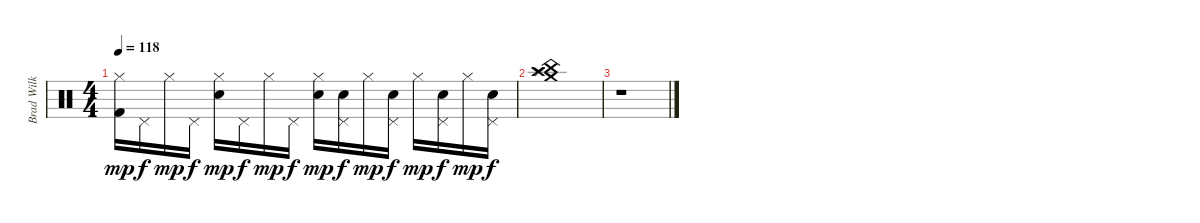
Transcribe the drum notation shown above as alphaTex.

\track ("Brad Wilk - Drums" "Brad Wilk ") {instrument percussion}
\staff {score}
\articulation defaults
\ts (4 4)
\tempo 118
\clef neutral
\ks c
("Kick (hit) 2" "Hi-Hat (closed)").16{dy mp} "Pedal Hi-Hat (hit)".16{dy f} "Hi-Hat (closed)".16{dy mp} "Pedal Hi-Hat (hit)".16{dy f} ("Electric Snare (hit)" "Hi-Hat (closed)").16{dy mp} "Pedal Hi-Hat (hit)".16{dy f} "Hi-Hat (closed)".16{dy mp} "Pedal Hi-Hat (hit)".16{dy f} ("Electric Snare (hit)" "Hi-Hat (closed)").16{dy mp} ("Electric Snare (hit)" "Pedal Hi-Hat (hit)").16{dy f} "Hi-Hat (closed)".16{dy mp} ("Electric Snare (hit)" "Pedal Hi-Hat (hit)").16{dy f} "Hi-Hat (closed)".16{dy mp} ("Electric Snare (hit)" "Pedal Hi-Hat (hit)").16{dy f} "Hi-Hat (closed)".16{dy mp} ("Electric Snare (hit)" "Pedal Hi-Hat (hit)").16{dy f} |
("Crash medium (hit)" "China (hit)" "Crash high (hit)" "Splash (hit)").1 |
r.1
